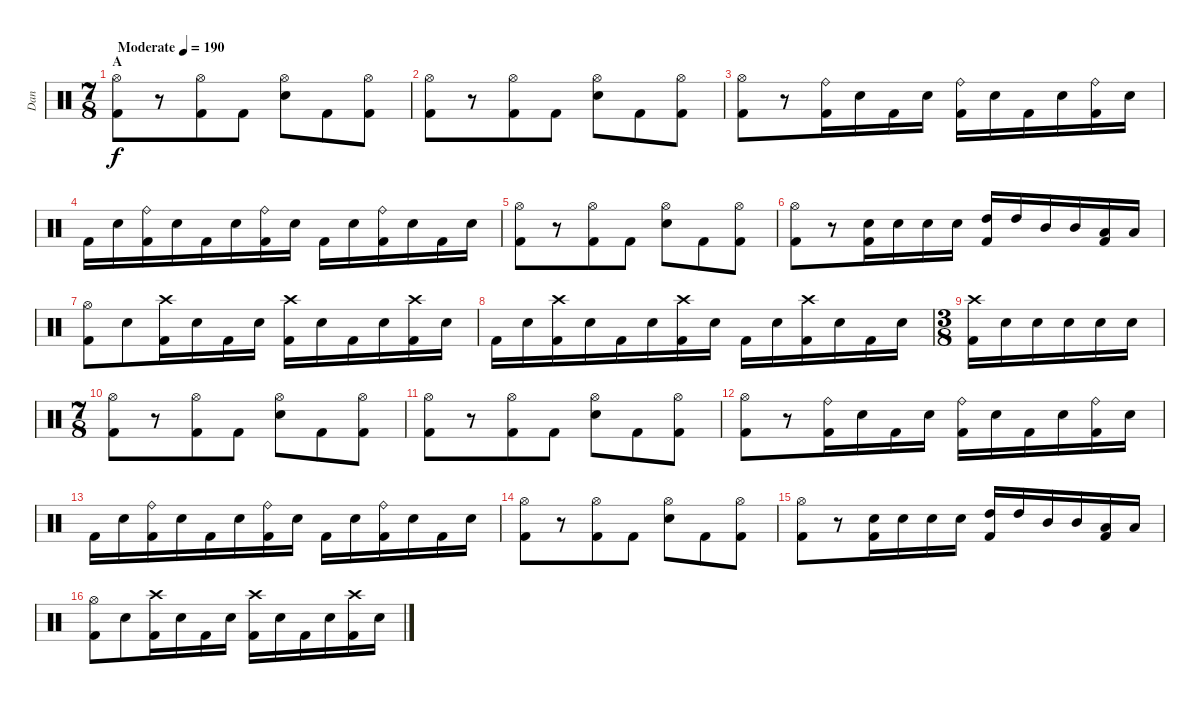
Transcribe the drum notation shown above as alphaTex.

\track ("Dan" "Dan") {instrument percussion}
\staff {score}
\articulation defaults
\ts (7 8)
\section ("" "A")
\tempo (190 "Moderate")
\clef neutral
\ks c
("Hi-Hat (open)" "Kick (hit) 2").8{dy f} r.8 ("Hi-Hat (open)" "Kick (hit) 2").8 "Kick (hit) 2".8 ("Hi-Hat (open)" "Electric Snare (hit)").8 "Kick (hit) 2".8 ("Hi-Hat (open)" "Kick (hit) 2").8 |
("Hi-Hat (open)" "Kick (hit) 2").8 r.8 ("Hi-Hat (open)" "Kick (hit) 2").8 "Kick (hit) 2".8 ("Hi-Hat (open)" "Electric Snare (hit)").8 "Kick (hit) 2".8 ("Hi-Hat (open)" "Kick (hit) 2").8 |
("Hi-Hat (open)" "Kick (hit) 2").8 r.8 ("Ride (bell)" "Kick (hit) 2").16 "Electric Snare (hit)".16 "Kick (hit) 2".16 "Electric Snare (hit)".16 ("Ride (bell)" "Kick (hit) 2").16 "Electric Snare (hit)".16 "Kick (hit) 2".16 "Electric Snare (hit)".16 ("Ride (bell)" "Kick (hit) 2").16 "Electric Snare (hit)".16 |
"Kick (hit) 2".16 "Electric Snare (hit)".16 ("Ride (bell)" "Kick (hit) 2").16 "Electric Snare (hit)".16 "Kick (hit) 2".16 "Electric Snare (hit)".16 ("Ride (bell)" "Kick (hit) 2").16 "Electric Snare (hit)".16 "Kick (hit) 2".16 "Electric Snare (hit)".16 ("Ride (bell)" "Kick (hit) 2").16 "Electric Snare (hit)".16 "Kick (hit) 2".16 "Electric Snare (hit)".16 |
("Hi-Hat (open)" "Kick (hit) 2").8 r.8 ("Hi-Hat (open)" "Kick (hit) 2").8 "Kick (hit) 2".8 ("Hi-Hat (open)" "Electric Snare (hit)").8 "Kick (hit) 2".8 ("Hi-Hat (open)" "Kick (hit) 2").8 |
("Hi-Hat (open)" "Kick (hit) 2").8 r.8 ("Electric Snare (hit)" "Kick (hit) 2").16 "Electric Snare (hit)".16 "Electric Snare (hit)".16 "Electric Snare (hit)".16 ("High Tom (hit)" "Kick (hit) 2").16 "High Tom (hit)".16 "Mid Tom (hit)".16 "Mid Tom (hit)".16 ("Low Tom (hit)" "Kick (hit) 2").16 "Low Tom (hit)".16 |
("Hi-Hat (open)" "Kick (hit) 2").8 "Electric Snare (hit)".8 ("Crash high (hit)" "Kick (hit) 2").16 "Electric Snare (hit)".16 "Kick (hit) 2".16 "Electric Snare (hit)".16 ("Crash high (hit)" "Kick (hit) 2").16 "Electric Snare (hit)".16 "Kick (hit) 2".16 "Electric Snare (hit)".16 ("Crash high (hit)" "Kick (hit) 2").16 "Electric Snare (hit)".16 |
"Kick (hit) 2".16 "Electric Snare (hit)".16 ("Crash high (hit)" "Kick (hit) 2").16 "Electric Snare (hit)".16 "Kick (hit) 2".16 "Electric Snare (hit)".16 ("Crash high (hit)" "Kick (hit) 2").16 "Electric Snare (hit)".16 "Kick (hit) 2".16 "Electric Snare (hit)".16 ("Crash high (hit)" "Kick (hit) 2").16 "Electric Snare (hit)".16 "Kick (hit) 2".16 "Electric Snare (hit)".16 |
\ts (3 8)
("Crash high (hit)" "Kick (hit) 2").16 "Electric Snare (hit)".16 "Electric Snare (hit)".16 "Electric Snare (hit)".16 "Electric Snare (hit)".16 "Electric Snare (hit)".16 |
\ts (7 8)
("Hi-Hat (open)" "Kick (hit) 2").8 r.8 ("Hi-Hat (open)" "Kick (hit) 2").8 "Kick (hit) 2".8 ("Hi-Hat (open)" "Electric Snare (hit)").8 "Kick (hit) 2".8 ("Hi-Hat (open)" "Kick (hit) 2").8 |
("Hi-Hat (open)" "Kick (hit) 2").8 r.8 ("Hi-Hat (open)" "Kick (hit) 2").8 "Kick (hit) 2".8 ("Hi-Hat (open)" "Electric Snare (hit)").8 "Kick (hit) 2".8 ("Hi-Hat (open)" "Kick (hit) 2").8 |
("Hi-Hat (open)" "Kick (hit) 2").8 r.8 ("Ride (bell)" "Kick (hit) 2").16 "Electric Snare (hit)".16 "Kick (hit) 2".16 "Electric Snare (hit)".16 ("Ride (bell)" "Kick (hit) 2").16 "Electric Snare (hit)".16 "Kick (hit) 2".16 "Electric Snare (hit)".16 ("Ride (bell)" "Kick (hit) 2").16 "Electric Snare (hit)".16 |
"Kick (hit) 2".16 "Electric Snare (hit)".16 ("Ride (bell)" "Kick (hit) 2").16 "Electric Snare (hit)".16 "Kick (hit) 2".16 "Electric Snare (hit)".16 ("Ride (bell)" "Kick (hit) 2").16 "Electric Snare (hit)".16 "Kick (hit) 2".16 "Electric Snare (hit)".16 ("Ride (bell)" "Kick (hit) 2").16 "Electric Snare (hit)".16 "Kick (hit) 2".16 "Electric Snare (hit)".16 |
("Hi-Hat (open)" "Kick (hit) 2").8 r.8 ("Hi-Hat (open)" "Kick (hit) 2").8 "Kick (hit) 2".8 ("Hi-Hat (open)" "Electric Snare (hit)").8 "Kick (hit) 2".8 ("Hi-Hat (open)" "Kick (hit) 2").8 |
("Hi-Hat (open)" "Kick (hit) 2").8 r.8 ("Electric Snare (hit)" "Kick (hit) 2").16 "Electric Snare (hit)".16 "Electric Snare (hit)".16 "Electric Snare (hit)".16 ("High Tom (hit)" "Kick (hit) 2").16 "High Tom (hit)".16 "Mid Tom (hit)".16 "Mid Tom (hit)".16 ("Low Tom (hit)" "Kick (hit) 2").16 "Low Tom (hit)".16 |
("Hi-Hat (open)" "Kick (hit) 2").8 "Electric Snare (hit)".8 ("Crash high (hit)" "Kick (hit) 2").16 "Electric Snare (hit)".16 "Kick (hit) 2".16 "Electric Snare (hit)".16 ("Crash high (hit)" "Kick (hit) 2").16 "Electric Snare (hit)".16 "Kick (hit) 2".16 "Electric Snare (hit)".16 ("Crash high (hit)" "Kick (hit) 2").16 "Electric Snare (hit)".16
